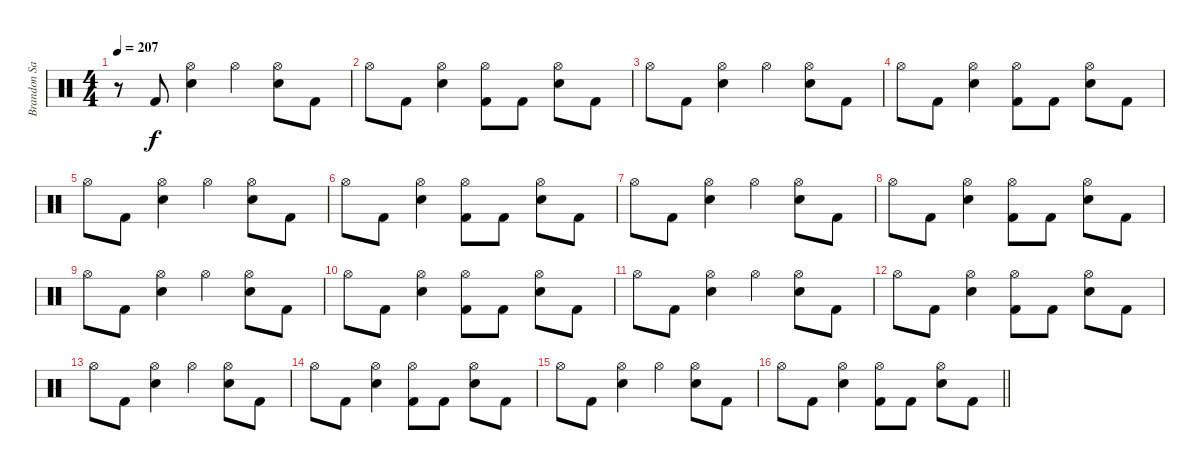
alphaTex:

\track ("Brandon Saller" "Brandon Sa") {instrument percussion}
\staff {score}
\articulation defaults
\ts (4 4)
\tempo 207
\clef neutral
\ks c
r.8{dy f} "Kick (hit) 2".8 ("Hi-Hat (open)" "Electric Snare (hit)").4 "Hi-Hat (open)".4 ("Hi-Hat (open)" "Electric Snare (hit)").8 "Kick (hit) 2".8 |
"Hi-Hat (open)".8 "Kick (hit) 2".8 ("Hi-Hat (open)" "Electric Snare (hit)").4 ("Hi-Hat (open)" "Kick (hit) 2").8 "Kick (hit) 2".8 ("Hi-Hat (open)" "Electric Snare (hit)").8 "Kick (hit) 2".8 |
"Hi-Hat (open)".8 "Kick (hit) 2".8 ("Hi-Hat (open)" "Electric Snare (hit)").4 "Hi-Hat (open)".4 ("Hi-Hat (open)" "Electric Snare (hit)").8 "Kick (hit) 2".8 |
"Hi-Hat (open)".8 "Kick (hit) 2".8 ("Hi-Hat (open)" "Electric Snare (hit)").4 ("Hi-Hat (open)" "Kick (hit) 2").8 "Kick (hit) 2".8 ("Hi-Hat (open)" "Electric Snare (hit)").8 "Kick (hit) 2".8 |
"Hi-Hat (open)".8 "Kick (hit) 2".8 ("Hi-Hat (open)" "Electric Snare (hit)").4 "Hi-Hat (open)".4 ("Hi-Hat (open)" "Electric Snare (hit)").8 "Kick (hit) 2".8 |
"Hi-Hat (open)".8 "Kick (hit) 2".8 ("Hi-Hat (open)" "Electric Snare (hit)").4 ("Hi-Hat (open)" "Kick (hit) 2").8 "Kick (hit) 2".8 ("Hi-Hat (open)" "Electric Snare (hit)").8 "Kick (hit) 2".8 |
"Hi-Hat (open)".8 "Kick (hit) 2".8 ("Hi-Hat (open)" "Electric Snare (hit)").4 "Hi-Hat (open)".4 ("Hi-Hat (open)" "Electric Snare (hit)").8 "Kick (hit) 2".8 |
"Hi-Hat (open)".8 "Kick (hit) 2".8 ("Hi-Hat (open)" "Electric Snare (hit)").4 ("Hi-Hat (open)" "Kick (hit) 2").8 "Kick (hit) 2".8 ("Hi-Hat (open)" "Electric Snare (hit)").8 "Kick (hit) 2".8 |
"Hi-Hat (open)".8 "Kick (hit) 2".8 ("Hi-Hat (open)" "Electric Snare (hit)").4 "Hi-Hat (open)".4 ("Hi-Hat (open)" "Electric Snare (hit)").8 "Kick (hit) 2".8 |
"Hi-Hat (open)".8 "Kick (hit) 2".8 ("Hi-Hat (open)" "Electric Snare (hit)").4 ("Hi-Hat (open)" "Kick (hit) 2").8 "Kick (hit) 2".8 ("Hi-Hat (open)" "Electric Snare (hit)").8 "Kick (hit) 2".8 |
"Hi-Hat (open)".8 "Kick (hit) 2".8 ("Hi-Hat (open)" "Electric Snare (hit)").4 "Hi-Hat (open)".4 ("Hi-Hat (open)" "Electric Snare (hit)").8 "Kick (hit) 2".8 |
"Hi-Hat (open)".8 "Kick (hit) 2".8 ("Hi-Hat (open)" "Electric Snare (hit)").4 ("Hi-Hat (open)" "Kick (hit) 2").8 "Kick (hit) 2".8 ("Hi-Hat (open)" "Electric Snare (hit)").8 "Kick (hit) 2".8 |
"Hi-Hat (open)".8 "Kick (hit) 2".8 ("Hi-Hat (open)" "Electric Snare (hit)").4 "Hi-Hat (open)".4 ("Hi-Hat (open)" "Electric Snare (hit)").8 "Kick (hit) 2".8 |
"Hi-Hat (open)".8 "Kick (hit) 2".8 ("Hi-Hat (open)" "Electric Snare (hit)").4 ("Hi-Hat (open)" "Kick (hit) 2").8 "Kick (hit) 2".8 ("Hi-Hat (open)" "Electric Snare (hit)").8 "Kick (hit) 2".8 |
"Hi-Hat (open)".8 "Kick (hit) 2".8 ("Hi-Hat (open)" "Electric Snare (hit)").4 "Hi-Hat (open)".4 ("Hi-Hat (open)" "Electric Snare (hit)").8 "Kick (hit) 2".8 |
\barLineRight lightlight "Hi-Hat (open)".8 "Kick (hit) 2".8
("Hi-Hat (open)" "Electric Snare (hit)").4 ("Hi-Hat (open)" "Kick (hit) 2").8 "Kick (hit) 2".8 ("Hi-Hat (open)" "Electric Snare (hit)").8 "Kick (hit) 2".8
